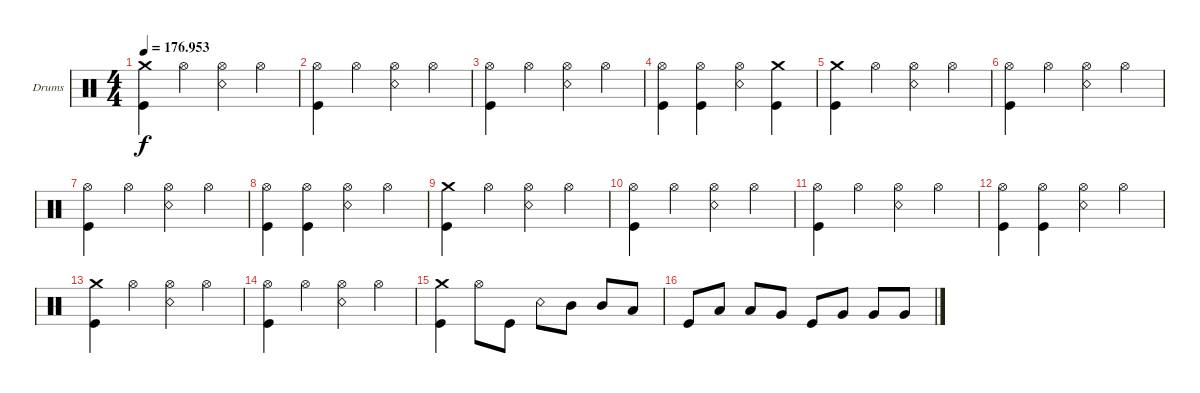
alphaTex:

\defaultSystemsLayout 4
\bracketExtendMode groupsimilarinstruments
\firstSystemTrackNameOrientation horizontal
\otherSystemsTrackNameOrientation horizontal
\track ("Christopher" "Drums") {instrument percussion}
\staff {score}
\articulation defaults
\ts (4 4)
\tempo
176.953
\accidentals auto
\clef neutral
\ottava regular
\simile none
\ks c
("Kick (hit)" "Crash medium (hit)").4{dy f} "Hi-Hat (open)".4 ("Hi-Hat (open)" "Snare (rim shot)").4 "Hi-Hat (open)".4 |
("Hi-Hat (open)" "Kick (hit)").4 "Hi-Hat (open)".4 ("Hi-Hat (open)" "Snare (rim shot)").4 "Hi-Hat (open)".4 |
("Hi-Hat (open)" "Kick (hit)").4 "Hi-Hat (open)".4 ("Hi-Hat (open)" "Snare (rim shot)").4 "Hi-Hat (open)".4 |
("Kick (hit)" "Hi-Hat (open)").4 ("Kick (hit)" "Hi-Hat (open)").4 ("Snare (rim shot)" "Hi-Hat (open)").4 ("Kick (hit)" "Crash medium (hit)").4 |
("Kick (hit)" "Crash medium (hit)").4 "Hi-Hat (open)".4 ("Hi-Hat (open)" "Snare (rim shot)").4 "Hi-Hat (open)".4 |
("Hi-Hat (open)" "Kick (hit)").4 "Hi-Hat (open)".4 ("Hi-Hat (open)" "Snare (rim shot)").4 "Hi-Hat (open)".4 |
("Hi-Hat (open)" "Kick (hit)").4 "Hi-Hat (open)".4 ("Hi-Hat (open)" "Snare (rim shot)").4 "Hi-Hat (open)".4 |
("Kick (hit)" "Hi-Hat (open)").4 ("Kick (hit)" "Hi-Hat (open)").4 ("Snare (rim shot)" "Hi-Hat (open)").4 "Hi-Hat (open)".4 |
("Kick (hit)" "Crash medium (hit)").4 "Hi-Hat (open)".4 ("Hi-Hat (open)" "Snare (rim shot)").4 "Hi-Hat (open)".4 |
("Hi-Hat (open)" "Kick (hit)").4 "Hi-Hat (open)".4 ("Hi-Hat (open)" "Snare (rim shot)").4 "Hi-Hat (open)".4 |
("Hi-Hat (open)" "Kick (hit)").4 "Hi-Hat (open)".4 ("Hi-Hat (open)" "Snare (rim shot)").4 "Hi-Hat (open)".4 |
("Kick (hit)" "Hi-Hat (open)").4 ("Kick (hit)" "Hi-Hat (open)").4 ("Snare (rim shot)" "Hi-Hat (open)").4 "Hi-Hat (open)".4 |
("Kick (hit)" "Crash medium (hit)").4 "Hi-Hat (open)".4 ("Hi-Hat (open)" "Snare (rim shot)").4 "Hi-Hat (open)".4 |
("Hi-Hat (open)" "Kick (hit)").4 "Hi-Hat (open)".4 ("Hi-Hat (open)" "Snare (rim shot)").4 "Hi-Hat (open)".4 |
("Crash medium (hit)" "Kick (hit)").4 "Hi-Hat (open)".8 "Kick (hit)".8 "Snare (rim shot)".8 "Mid Tom (hit)".8 "Mid Tom (hit)".8 "Low Tom (hit)".8 |
"Kick (hit)".8 "Low Tom (hit)".8 "Low Tom (hit)".8 "Very Low Tom (hit)".8 "Kick (hit)".8 "Very Low Tom (hit)".8 "Very Low Tom (hit)".8 "Very Low Tom (hit)".8
